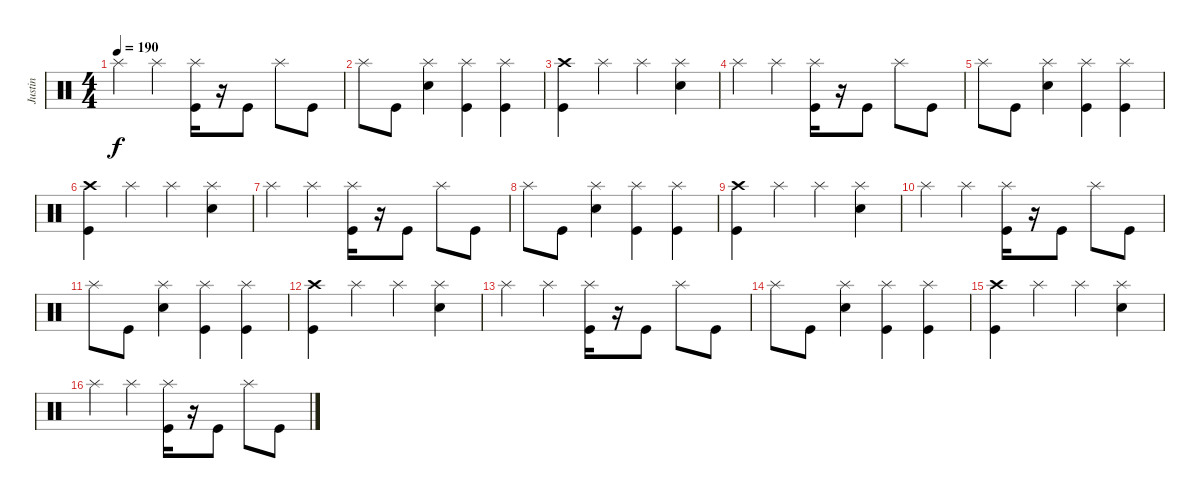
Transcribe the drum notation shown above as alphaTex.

\track ("Justin" "Justin") {instrument percussion}
\staff {score}
\articulation defaults
\ts (4 4)
\tempo 190
\clef neutral
\ks c "Splash (hit)".4{dy f} "Splash (hit)".4
("Splash (hit)" "Kick (hit)").16 r.16 "Kick (hit)".8 "Splash (hit)".8 "Kick (hit)".8 |
"Splash (hit)".8 "Kick (hit)".8 ("Splash (hit)" "Electric Snare (hit)").4 ("Splash (hit)" "Kick (hit)").4 ("Splash (hit)" "Kick (hit)").4 |
("Crash high (hit)" "Kick (hit)").4 "Splash (hit)".4 "Splash (hit)".4 ("Splash (hit)" "Electric Snare (hit)").4 |
"Splash (hit)".4 "Splash (hit)".4 ("Splash (hit)" "Kick (hit)").16 r.16 "Kick (hit)".8 "Splash (hit)".8 "Kick (hit)".8 |
"Splash (hit)".8 "Kick (hit)".8 ("Splash (hit)" "Electric Snare (hit)").4 ("Splash (hit)" "Kick (hit)").4 ("Splash (hit)" "Kick (hit)").4 |
("Crash high (hit)" "Kick (hit)").4 "Splash (hit)".4 "Splash (hit)".4 ("Splash (hit)" "Electric Snare (hit)").4 |
"Splash (hit)".4 "Splash (hit)".4 ("Splash (hit)" "Kick (hit)").16 r.16 "Kick (hit)".8 "Splash (hit)".8 "Kick (hit)".8 |
"Splash (hit)".8 "Kick (hit)".8 ("Splash (hit)" "Electric Snare (hit)").4 ("Splash (hit)" "Kick (hit)").4 ("Splash (hit)" "Kick (hit)").4 |
("Crash high (hit)" "Kick (hit)").4 "Splash (hit)".4 "Splash (hit)".4 ("Splash (hit)" "Electric Snare (hit)").4 |
"Splash (hit)".4 "Splash (hit)".4 ("Splash (hit)" "Kick (hit)").16 r.16 "Kick (hit)".8 "Splash (hit)".8 "Kick (hit)".8 |
"Splash (hit)".8 "Kick (hit)".8 ("Splash (hit)" "Electric Snare (hit)").4 ("Splash (hit)" "Kick (hit)").4 ("Splash (hit)" "Kick (hit)").4 |
("Crash high (hit)" "Kick (hit)").4 "Splash (hit)".4 "Splash (hit)".4 ("Splash (hit)" "Electric Snare (hit)").4 |
"Splash (hit)".4 "Splash (hit)".4 ("Splash (hit)" "Kick (hit)").16 r.16 "Kick (hit)".8 "Splash (hit)".8 "Kick (hit)".8 |
"Splash (hit)".8 "Kick (hit)".8 ("Splash (hit)" "Electric Snare (hit)").4 ("Splash (hit)" "Kick (hit)").4 ("Splash (hit)" "Kick (hit)").4 |
("Crash high (hit)" "Kick (hit)").4 "Splash (hit)".4 "Splash (hit)".4 ("Splash (hit)" "Electric Snare (hit)").4 |
"Splash (hit)".4 "Splash (hit)".4 ("Splash (hit)" "Kick (hit)").16 r.16 "Kick (hit)".8 "Splash (hit)".8 "Kick (hit)".8
